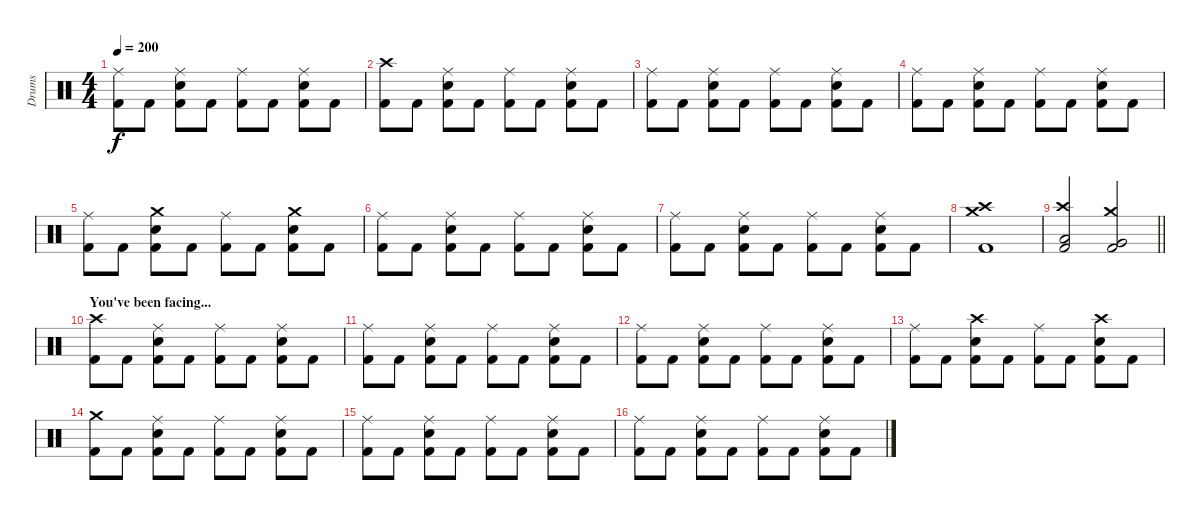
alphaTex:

\track ("Drums" "Drums") {instrument percussion}
\staff {score}
\articulation defaults
\ts (4 4)
\tempo 200
\clef neutral
\ks c
("Ride (middle)" "Kick (hit) 2").8{dy f} "Kick (hit) 2".8 ("Ride (middle)" "Snare (hit) 2" "Kick (hit) 2").8 "Kick (hit) 2".8 ("Ride (middle)" "Kick (hit) 2").8 "Kick (hit) 2".8 ("Ride (middle)" "Snare (hit) 2" "Kick (hit) 2").8 "Kick (hit) 2".8 |
("Crash high (hit)" "Kick (hit) 2").8 "Kick (hit) 2".8 ("Ride (middle)" "Snare (hit) 2" "Kick (hit) 2").8 "Kick (hit) 2".8 ("Ride (middle)" "Kick (hit) 2").8 "Kick (hit) 2".8 ("Ride (middle)" "Snare (hit) 2" "Kick (hit) 2").8 "Kick (hit) 2".8 |
("Ride (middle)" "Kick (hit) 2").8 "Kick (hit) 2".8 ("Ride (middle)" "Snare (hit) 2" "Kick (hit) 2").8 "Kick (hit) 2".8 ("Ride (middle)" "Kick (hit) 2").8 "Kick (hit) 2".8 ("Ride (middle)" "Snare (hit) 2" "Kick (hit) 2").8 "Kick (hit) 2".8 |
("Ride (middle)" "Kick (hit) 2").8 "Kick (hit) 2".8 ("Ride (middle)" "Snare (hit) 2" "Kick (hit) 2").8 "Kick (hit) 2".8 ("Ride (middle)" "Kick (hit) 2").8 "Kick (hit) 2".8 ("Ride (middle)" "Snare (hit) 2" "Kick (hit) 2").8 "Kick (hit) 2".8 |
("Ride (middle)" "Kick (hit) 2").8 "Kick (hit) 2".8 ("Crash medium (hit)" "Snare (hit) 2" "Kick (hit) 2").8 "Kick (hit) 2".8 ("Ride (middle)" "Kick (hit) 2").8 "Kick (hit) 2".8 ("Crash medium (hit)" "Snare (hit) 2" "Kick (hit) 2").8 "Kick (hit) 2".8 |
("Ride (middle)" "Kick (hit) 2").8 "Kick (hit) 2".8 ("Ride (middle)" "Snare (hit) 2" "Kick (hit) 2").8 "Kick (hit) 2".8 ("Ride (middle)" "Kick (hit) 2").8 "Kick (hit) 2".8 ("Ride (middle)" "Snare (hit) 2" "Kick (hit) 2").8 "Kick (hit) 2".8 |
("Ride (middle)" "Kick (hit) 2").8 "Kick (hit) 2".8 ("Ride (middle)" "Snare (hit) 2" "Kick (hit) 2").8 "Kick (hit) 2".8 ("Ride (middle)" "Kick (hit) 2").8 "Kick (hit) 2".8 ("Ride (middle)" "Snare (hit) 2" "Kick (hit) 2").8 "Kick (hit) 2".8 |
("Crash medium (hit)" "Crash high (hit)" "Kick (hit) 2").1 |
\barLineRight lightlight
("Crash high (hit)" "Low Tom (hit)" "Kick (hit) 2").2 ("Crash medium (hit)" "Very Low Tom (hit)" "Kick (hit) 2").2 |
\section ("" "You've been facing...")
("Crash high (hit)" "Kick (hit) 2").8 "Kick (hit) 2".8 ("Ride (middle)" "Snare (hit) 2" "Kick (hit) 2").8 "Kick (hit) 2".8 ("Ride (middle)" "Kick (hit) 2").8 "Kick (hit) 2".8 ("Ride (middle)" "Snare (hit) 2" "Kick (hit) 2").8 "Kick (hit) 2".8 |
("Ride (middle)" "Kick (hit) 2").8 "Kick (hit) 2".8 ("Ride (middle)" "Snare (hit) 2" "Kick (hit) 2").8 "Kick (hit) 2".8 ("Ride (middle)" "Kick (hit) 2").8 "Kick (hit) 2".8 ("Ride (middle)" "Snare (hit) 2" "Kick (hit) 2").8 "Kick (hit) 2".8 |
("Ride (middle)" "Kick (hit) 2").8 "Kick (hit) 2".8 ("Ride (middle)" "Snare (hit) 2" "Kick (hit) 2").8 "Kick (hit) 2".8 ("Ride (middle)" "Kick (hit) 2").8 "Kick (hit) 2".8 ("Ride (middle)" "Snare (hit) 2" "Kick (hit) 2").8 "Kick (hit) 2".8 |
("Ride (middle)" "Kick (hit) 2").8 "Kick (hit) 2".8 ("Crash high (hit)" "Snare (hit) 2" "Kick (hit) 2").8 "Kick (hit) 2".8 ("Ride (middle)" "Kick (hit) 2").8 "Kick (hit) 2".8 ("Crash high (hit)" "Snare (hit) 2" "Kick (hit) 2").8 "Kick (hit) 2".8 |
("Crash medium (hit)" "Kick (hit) 2").8 "Kick (hit) 2".8 ("Ride (middle)" "Snare (hit) 2" "Kick (hit) 2").8 "Kick (hit) 2".8 ("Ride (middle)" "Kick (hit) 2").8 "Kick (hit) 2".8 ("Ride (middle)" "Snare (hit) 2" "Kick (hit) 2").8 "Kick (hit) 2".8 |
("Ride (middle)" "Kick (hit) 2").8 "Kick (hit) 2".8 ("Ride (middle)" "Snare (hit) 2" "Kick (hit) 2").8 "Kick (hit) 2".8 ("Ride (middle)" "Kick (hit) 2").8 "Kick (hit) 2".8 ("Ride (middle)" "Snare (hit) 2" "Kick (hit) 2").8 "Kick (hit) 2".8 |
("Ride (middle)" "Kick (hit) 2").8 "Kick (hit) 2".8 ("Ride (middle)" "Snare (hit) 2" "Kick (hit) 2").8 "Kick (hit) 2".8 ("Ride (middle)" "Kick (hit) 2").8 "Kick (hit) 2".8 ("Ride (middle)" "Snare (hit) 2" "Kick (hit) 2").8 "Kick (hit) 2".8
